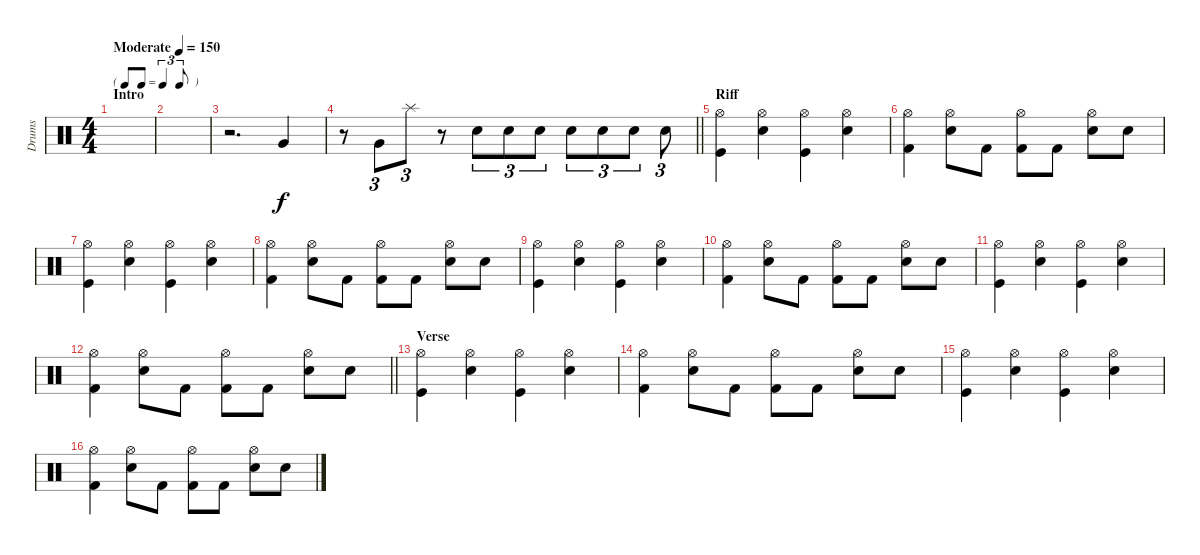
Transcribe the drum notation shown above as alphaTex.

\track ("Drums" "Drums") {instrument percussion}
\staff {score}
\articulation defaults
\ts (4 4)
\tf triplet8th
\section ("" "Intro")
\tempo (150 "Moderate")
\clef neutral
\ks c
|
|
r.2{d} "Very Low Tom (hit)".4 |
\barLineRight lightlight
r.8 "Very Low Tom (hit)".8{tu (3 2)} "Splash (hit)".8{tu (3 2)} r.8 "Snare (hit) 2".8{tu (3 2)} "Snare (hit) 2".8{tu (3 2)} "Snare (hit) 2".8{tu (3 2)} "Snare (hit) 2".8{tu (3 2)} "Snare (hit) 2".8{tu (3 2)} "Snare (hit) 2".8{tu (3 2)} "Snare (hit) 2".8{tu (3 2)} |
\section ("" "Riff")
("Hi-Hat (open)" "Kick (hit)").4 ("Hi-Hat (open)" "Snare (hit) 2").4 ("Hi-Hat (open)" "Kick (hit)").4 ("Hi-Hat (open)" "Snare (hit) 2").4 |
("Hi-Hat (open)" "Kick (hit) 2").4 ("Hi-Hat (open)" "Snare (hit) 2").8 "Kick (hit) 2".8 ("Hi-Hat (open)" "Kick (hit) 2").8 "Kick (hit) 2".8 ("Hi-Hat (open)" "Snare (hit) 2").8 "Snare (hit) 2".8 |
("Hi-Hat (open)" "Kick (hit)").4 ("Hi-Hat (open)" "Snare (hit) 2").4 ("Hi-Hat (open)" "Kick (hit)").4 ("Hi-Hat (open)" "Snare (hit) 2").4 |
("Hi-Hat (open)" "Kick (hit) 2").4 ("Hi-Hat (open)" "Snare (hit) 2").8 "Kick (hit) 2".8 ("Hi-Hat (open)" "Kick (hit) 2").8 "Kick (hit) 2".8 ("Hi-Hat (open)" "Snare (hit) 2").8 "Snare (hit) 2".8 |
("Hi-Hat (open)" "Kick (hit)").4 ("Hi-Hat (open)" "Snare (hit) 2").4 ("Hi-Hat (open)" "Kick (hit)").4 ("Hi-Hat (open)" "Snare (hit) 2").4 |
("Hi-Hat (open)" "Kick (hit) 2").4 ("Hi-Hat (open)" "Snare (hit) 2").8 "Kick (hit) 2".8 ("Hi-Hat (open)" "Kick (hit) 2").8 "Kick (hit) 2".8 ("Hi-Hat (open)" "Snare (hit) 2").8 "Snare (hit) 2".8 |
("Hi-Hat (open)" "Kick (hit)").4 ("Hi-Hat (open)" "Snare (hit) 2").4 ("Hi-Hat (open)" "Kick (hit)").4 ("Hi-Hat (open)" "Snare (hit) 2").4 |
\barLineRight lightlight
("Hi-Hat (open)" "Kick (hit) 2").4 ("Hi-Hat (open)" "Snare (hit) 2").8 "Kick (hit) 2".8 ("Hi-Hat (open)" "Kick (hit) 2").8 "Kick (hit) 2".8 ("Hi-Hat (open)" "Snare (hit) 2").8 "Snare (hit) 2".8 |
\section ("" "Verse")
("Hi-Hat (open)" "Kick (hit)").4 ("Hi-Hat (open)" "Snare (hit) 2").4 ("Hi-Hat (open)" "Kick (hit)").4 ("Hi-Hat (open)" "Snare (hit) 2").4 |
("Hi-Hat (open)" "Kick (hit) 2").4 ("Hi-Hat (open)" "Snare (hit) 2").8 "Kick (hit) 2".8 ("Hi-Hat (open)" "Kick (hit) 2").8 "Kick (hit) 2".8 ("Hi-Hat (open)" "Snare (hit) 2").8 "Snare (hit) 2".8 |
("Hi-Hat (open)" "Kick (hit)").4 ("Hi-Hat (open)" "Snare (hit) 2").4 ("Hi-Hat (open)" "Kick (hit)").4 ("Hi-Hat (open)" "Snare (hit) 2").4 |
("Hi-Hat (open)" "Kick (hit) 2").4 ("Hi-Hat (open)" "Snare (hit) 2").8 "Kick (hit) 2".8 ("Hi-Hat (open)" "Kick (hit) 2").8 "Kick (hit) 2".8 ("Hi-Hat (open)" "Snare (hit) 2").8 "Snare (hit) 2".8
